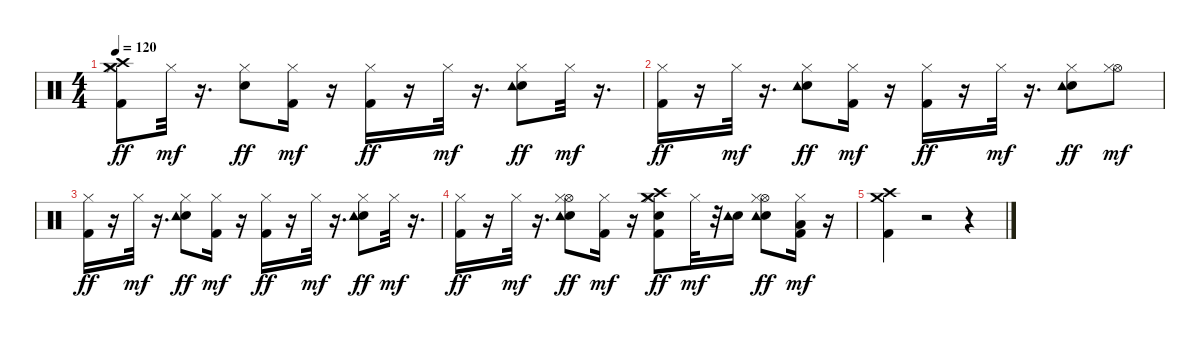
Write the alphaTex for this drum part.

\track "" {instrument percussion}
\staff {score}
\articulation defaults
\ts (4 4)
\tempo 120
\clef neutral
\ks c
("Crash medium (hit)" "Crash high (hit)" "Hi-Hat (closed)" "Kick (hit) 2").8{dy ff} "Hi-Hat (closed)".32{dy mf} r.16{d} ("Snare (hit) 2" "Hi-Hat (closed)").8{dy ff} ("Hi-Hat (closed)" "Kick (hit) 2").16{dy mf} r.16 ("Hi-Hat (closed)" "Kick (hit) 2").16{dy ff} r.16 "Hi-Hat (closed)".32{dy mf} r.16{d} ("Snare (hit) 2" "Tambourine (hit)" "Hi-Hat (closed)").8{dy ff} "Hi-Hat (closed)".32{dy mf} r.16{d} |
("Hi-Hat (closed)" "Kick (hit) 2").16{dy ff} r.16 "Hi-Hat (closed)".32{dy mf} r.16{d} ("Snare (hit) 2" "Tambourine (hit)" "Hi-Hat (closed)").8{dy ff} ("Hi-Hat (closed)" "Kick (hit) 2").16{dy mf} r.16 ("Hi-Hat (closed)" "Kick (hit) 2").16{dy ff} r.16 "Hi-Hat (closed)".32{dy mf} r.16{d} ("Snare (hit) 2" "Tambourine (hit)" "Hi-Hat (closed)").8{dy ff} ("Hi-Hat (open)" "Hi-Hat (closed)").8{dy mf} |
("Hi-Hat (closed)" "Kick (hit) 2").16{dy ff} r.16 "Hi-Hat (closed)".32{dy mf} r.16{d} ("Snare (hit) 2" "Tambourine (hit)" "Hi-Hat (closed)").8{dy ff} ("Hi-Hat (closed)" "Kick (hit) 2").16{dy mf} r.16 ("Hi-Hat (closed)" "Kick (hit) 2").16{dy ff} r.16 "Hi-Hat (closed)".32{dy mf} r.16{d} ("Snare (hit) 2" "Tambourine (hit)" "Hi-Hat (closed)").8{dy ff} "Hi-Hat (closed)".32{dy mf} r.16{d} |
("Hi-Hat (closed)" "Kick (hit) 2").16{dy ff} r.16 "Hi-Hat (closed)".32{dy mf} r.16{d} ("Hi-Hat (open)" "Snare (hit) 2" "Tambourine (hit)" "Hi-Hat (closed)").8{dy ff} ("Hi-Hat (closed)" "Kick (hit) 2").16{dy mf} r.16 ("Snare (hit) 2" "Crash high (hit)" "Crash medium (hit)" "Hi-Hat (closed)" "Kick (hit) 2").8{dy ff} "Hi-Hat (closed)".32{dy mf} r.32 ("Snare (hit) 2" "Tambourine (hit)").16 ("Snare (hit) 2" "Tambourine (hit)" "Hi-Hat (open)" "Hi-Hat (closed)").8{dy ff} ("Low Floor Tom (hit)" "Hi-Hat (closed)" "Kick (hit) 2").16{dy mf} r.16 |
("Crash high (hit)" "Crash medium (hit)" "Kick (hit) 2").4 r.2 r.4
